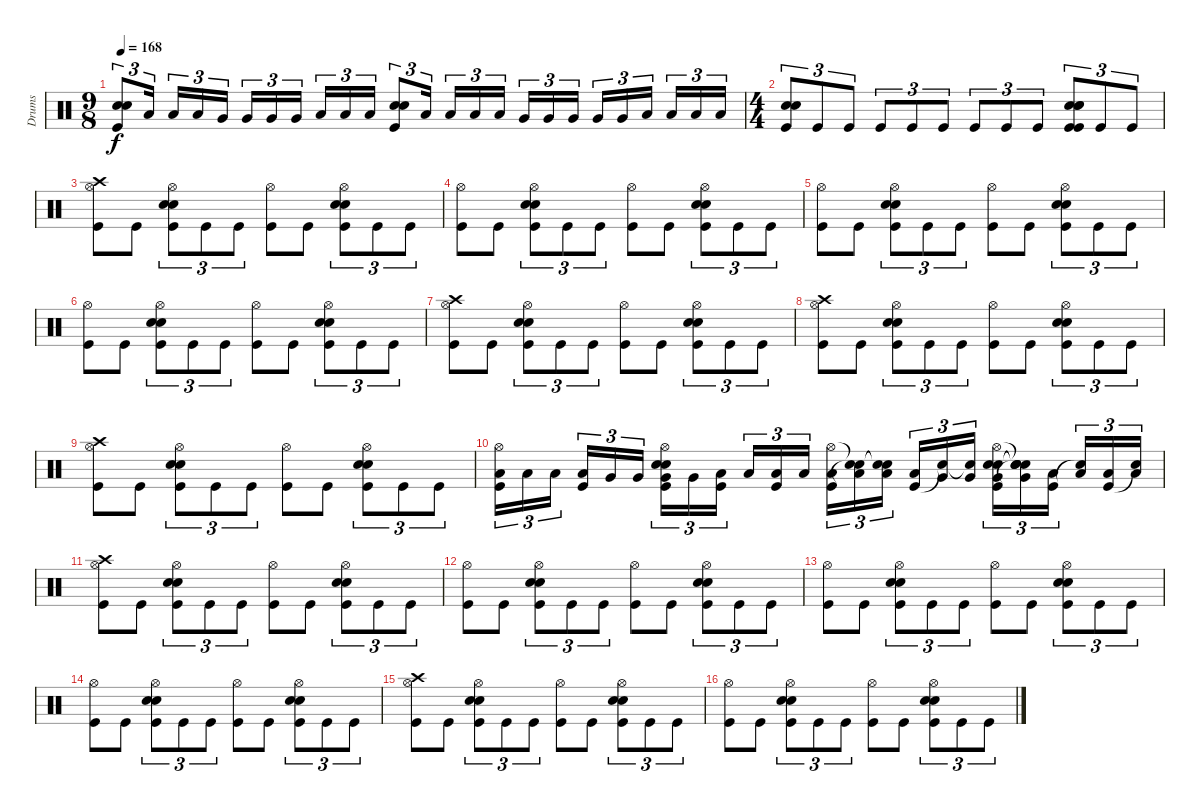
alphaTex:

\track ("Drums" "Drums") {instrument percussion}
\staff {score}
\articulation defaults
\ts (9 8)
\tempo 168
\clef neutral
\ks c
("Electric Snare (hit)" "Electric Snare (hit)" "Kick (hit)").8{tu (3 2) dy f} "Low Tom (hit)".16{tu (3 2)} "Low Tom (hit)".16{tu (3 2)} "Low Tom (hit)".16{tu (3 2)} "Very Low Tom (hit)".16{tu (3 2)} "Very Low Tom (hit)".16{tu (3 2)} "Very Low Tom (hit)".16{tu (3 2)} "Very Low Tom (hit)".16{tu (3 2)} "Low Floor Tom (hit)".16{tu (3 2)} "Low Floor Tom (hit)".16{tu (3 2)} "Low Floor Tom (hit)".16{tu (3 2)} ("Electric Snare (hit)" "Electric Snare (hit)" "Kick (hit)").8{tu (3 2)} "Low Tom (hit)".16{tu (3 2)} "Low Tom (hit)".16{tu (3 2)} "Low Tom (hit)".16{tu (3 2)} "Low Tom (hit)".16{tu (3 2)} "Very Low Tom (hit)".16{tu (3 2)} "Very Low Tom (hit)".16{tu (3 2)} "Very Low Tom (hit)".16{tu (3 2)} "Very Low Tom (hit)".16{tu (3 2)} "Very Low Tom (hit)".16{tu (3 2)} "Low Floor Tom (hit)".16{tu (3 2)} "Low Floor Tom (hit)".16{tu (3 2)} "Low Floor Tom (hit)".16{tu (3 2)} "Low Floor Tom (hit)".16{tu (3 2)} |
\ts (4 4)
("Electric Snare (hit)" "Electric Snare (hit)" "Kick (hit)").8{tu (3 2)} "Kick (hit)".8{tu (3 2)} "Kick (hit)".8{tu (3 2)} "Kick (hit)".8{tu (3 2)} "Kick (hit)".8{tu (3 2)} "Kick (hit)".8{tu (3 2)} "Kick (hit)".8{tu (3 2)} "Kick (hit)".8{tu (3 2)} "Kick (hit)".8{tu (3 2)} ("Snare (hit) 2" "Electric Snare (hit)" "Electric Snare (hit)" "Kick (hit)" "Kick (hit)").8{tu (3 2)} "Kick (hit)".8{tu (3 2)} "Kick (hit)".8{tu (3 2)} |
("Crash high (hit)" "Hi-Hat (open)" "Kick (hit)").8 "Kick (hit)".8 ("Electric Snare (hit)" "Electric Snare (hit)" "Hi-Hat (open)" "Kick (hit)").8{tu (3 2)} "Kick (hit)".8{tu (3 2)} "Kick (hit)".8{tu (3 2)} ("Hi-Hat (open)" "Kick (hit)").8 "Kick (hit)".8 ("Electric Snare (hit)" "Electric Snare (hit)" "Hi-Hat (open)" "Kick (hit)").8{tu (3 2)} "Kick (hit)".8{tu (3 2)} "Kick (hit)".8{tu (3 2)} |
("Hi-Hat (open)" "Kick (hit)").8 "Kick (hit)".8 ("Electric Snare (hit)" "Electric Snare (hit)" "Hi-Hat (open)" "Kick (hit)").8{tu (3 2)} "Kick (hit)".8{tu (3 2)} "Kick (hit)".8{tu (3 2)} ("Hi-Hat (open)" "Kick (hit)").8 "Kick (hit)".8 ("Electric Snare (hit)" "Electric Snare (hit)" "Hi-Hat (open)" "Kick (hit)").8{tu (3 2)} "Kick (hit)".8{tu (3 2)} "Kick (hit)".8{tu (3 2)} |
("Hi-Hat (open)" "Kick (hit)").8 "Kick (hit)".8 ("Electric Snare (hit)" "Electric Snare (hit)" "Hi-Hat (open)" "Kick (hit)").8{tu (3 2)} "Kick (hit)".8{tu (3 2)} "Kick (hit)".8{tu (3 2)} ("Hi-Hat (open)" "Kick (hit)").8 "Kick (hit)".8 ("Electric Snare (hit)" "Electric Snare (hit)" "Hi-Hat (open)" "Kick (hit)").8{tu (3 2)} "Kick (hit)".8{tu (3 2)} "Kick (hit)".8{tu (3 2)} |
("Hi-Hat (open)" "Kick (hit)").8 "Kick (hit)".8 ("Electric Snare (hit)" "Electric Snare (hit)" "Hi-Hat (open)" "Kick (hit)").8{tu (3 2)} "Kick (hit)".8{tu (3 2)} "Kick (hit)".8{tu (3 2)} ("Hi-Hat (open)" "Kick (hit)").8 "Kick (hit)".8 ("Electric Snare (hit)" "Electric Snare (hit)" "Hi-Hat (open)" "Kick (hit)").8{tu (3 2)} "Kick (hit)".8{tu (3 2)} "Kick (hit)".8{tu (3 2)} |
("Crash high (hit)" "Hi-Hat (open)" "Kick (hit)").8 "Kick (hit)".8 ("Electric Snare (hit)" "Electric Snare (hit)" "Hi-Hat (open)" "Kick (hit)").8{tu (3 2)} "Kick (hit)".8{tu (3 2)} "Kick (hit)".8{tu (3 2)} ("Hi-Hat (open)" "Kick (hit)").8 "Kick (hit)".8 ("Electric Snare (hit)" "Electric Snare (hit)" "Hi-Hat (open)" "Kick (hit)").8{tu (3 2)} "Kick (hit)".8{tu (3 2)} "Kick (hit)".8{tu (3 2)} |
("Crash high (hit)" "Hi-Hat (open)" "Kick (hit)").8 "Kick (hit)".8 ("Electric Snare (hit)" "Electric Snare (hit)" "Hi-Hat (open)" "Kick (hit)").8{tu (3 2)} "Kick (hit)".8{tu (3 2)} "Kick (hit)".8{tu (3 2)} ("Hi-Hat (open)" "Kick (hit)").8 "Kick (hit)".8 ("Electric Snare (hit)" "Electric Snare (hit)" "Hi-Hat (open)" "Kick (hit)").8{tu (3 2)} "Kick (hit)".8{tu (3 2)} "Kick (hit)".8{tu (3 2)} |
("Crash high (hit)" "Hi-Hat (open)" "Kick (hit)").8 "Kick (hit)".8 ("Electric Snare (hit)" "Electric Snare (hit)" "Hi-Hat (open)" "Kick (hit)").8{tu (3 2)} "Kick (hit)".8{tu (3 2)} "Kick (hit)".8{tu (3 2)} ("Hi-Hat (open)" "Kick (hit)").8 "Kick (hit)".8 ("Electric Snare (hit)" "Electric Snare (hit)" "Hi-Hat (open)" "Kick (hit)").8{tu (3 2)} "Kick (hit)".8{tu (3 2)} "Kick (hit)".8{tu (3 2)} |
("Low Tom (hit)" "Hi-Hat (open)" "Kick (hit)").16{tu (3 2)} "Low Tom (hit)".16{tu (3 2)} "Low Tom (hit)".16{tu (3 2)} ("Low Tom (hit)" "Kick (hit)").16{tu (3 2)} "Very Low Tom (hit)".16{tu (3 2)} "Very Low Tom (hit)".16{tu (3 2)} ("Very Low Tom (hit)" "Electric Snare (hit)" "Electric Snare (hit)" "Hi-Hat (open)" "Kick (hit)").16{tu (3 2)} "Very Low Tom (hit)".16{tu (3 2)} ("Low Floor Tom (hit)" "Kick (hit)").16{tu (3 2)} "Low Floor Tom (hit)".16{tu (3 2)} ("Low Floor Tom (hit)" "Kick (hit)").16{tu (3 2)} "Low Floor Tom (hit)".16{tu (3 2)} ("Low Tom (hit)" "Hi-Hat (open)" "Kick (hit)").16{tu (3 2)} ("Low Tom (hit)" "Snare (hit)"{t} "Snare (hit)"{t}).16{tu (3 2)} ("Low Tom (hit)" "Snare (hit)"{t} "Snare (hit)"{t}).16{tu (3 2)} ("Low Tom (hit)" "Kick (hit)").16{tu (3 2)} ("Very Low Tom (hit)" "Snare (hit)"{t}).16{tu (3 2)} ("Very Low Tom (hit)" "Snare (hit)"{t}).16{tu (3 2)} ("Very Low Tom (hit)" "Electric Snare (hit)" "Electric Snare (hit)" "Hi-Hat (open)" "Kick (hit)").16{tu (3 2)} ("Very Low Tom (hit)" "Snare (hit)"{t} "Snare (hit)"{t} "Snare (hit)"{t} "Snare (hit)"{t}).16{tu (3 2)} ("Low Floor Tom (hit)" "Kick (hit)").16{tu (3 2)} ("Low Floor Tom (hit)" "Snare (hit)"{t}).16{tu (3 2)} ("Low Floor Tom (hit)" "Kick (hit)").16{tu (3 2)} ("Low Floor Tom (hit)" "Snare (hit)"{t}).16{tu (3 2)} |
("Crash high (hit)" "Hi-Hat (open)" "Kick (hit)").8 "Kick (hit)".8 ("Electric Snare (hit)" "Electric Snare (hit)" "Hi-Hat (open)" "Kick (hit)").8{tu (3 2)} "Kick (hit)".8{tu (3 2)} "Kick (hit)".8{tu (3 2)} ("Hi-Hat (open)" "Kick (hit)").8 "Kick (hit)".8 ("Electric Snare (hit)" "Electric Snare (hit)" "Hi-Hat (open)" "Kick (hit)").8{tu (3 2)} "Kick (hit)".8{tu (3 2)} "Kick (hit)".8{tu (3 2)} |
("Hi-Hat (open)" "Kick (hit)").8 "Kick (hit)".8 ("Electric Snare (hit)" "Electric Snare (hit)" "Hi-Hat (open)" "Kick (hit)").8{tu (3 2)} "Kick (hit)".8{tu (3 2)} "Kick (hit)".8{tu (3 2)} ("Hi-Hat (open)" "Kick (hit)").8 "Kick (hit)".8 ("Electric Snare (hit)" "Electric Snare (hit)" "Hi-Hat (open)" "Kick (hit)").8{tu (3 2)} "Kick (hit)".8{tu (3 2)} "Kick (hit)".8{tu (3 2)} |
("Hi-Hat (open)" "Kick (hit)").8 "Kick (hit)".8 ("Electric Snare (hit)" "Electric Snare (hit)" "Hi-Hat (open)" "Kick (hit)").8{tu (3 2)} "Kick (hit)".8{tu (3 2)} "Kick (hit)".8{tu (3 2)} ("Hi-Hat (open)" "Kick (hit)").8 "Kick (hit)".8 ("Electric Snare (hit)" "Electric Snare (hit)" "Hi-Hat (open)" "Kick (hit)").8{tu (3 2)} "Kick (hit)".8{tu (3 2)} "Kick (hit)".8{tu (3 2)} |
("Hi-Hat (open)" "Kick (hit)").8 "Kick (hit)".8 ("Electric Snare (hit)" "Electric Snare (hit)" "Hi-Hat (open)" "Kick (hit)").8{tu (3 2)} "Kick (hit)".8{tu (3 2)} "Kick (hit)".8{tu (3 2)} ("Hi-Hat (open)" "Kick (hit)").8 "Kick (hit)".8 ("Electric Snare (hit)" "Electric Snare (hit)" "Hi-Hat (open)" "Kick (hit)").8{tu (3 2)} "Kick (hit)".8{tu (3 2)} "Kick (hit)".8{tu (3 2)} |
("Crash high (hit)" "Hi-Hat (open)" "Kick (hit)").8 "Kick (hit)".8 ("Electric Snare (hit)" "Electric Snare (hit)" "Hi-Hat (open)" "Kick (hit)").8{tu (3 2)} "Kick (hit)".8{tu (3 2)} "Kick (hit)".8{tu (3 2)} ("Hi-Hat (open)" "Kick (hit)").8 "Kick (hit)".8 ("Electric Snare (hit)" "Electric Snare (hit)" "Hi-Hat (open)" "Kick (hit)").8{tu (3 2)} "Kick (hit)".8{tu (3 2)} "Kick (hit)".8{tu (3 2)} |
("Hi-Hat (open)" "Kick (hit)").8 "Kick (hit)".8 ("Electric Snare (hit)" "Electric Snare (hit)" "Hi-Hat (open)" "Kick (hit)").8{tu (3 2)} "Kick (hit)".8{tu (3 2)} "Kick (hit)".8{tu (3 2)} ("Hi-Hat (open)" "Kick (hit)").8 "Kick (hit)".8 ("Electric Snare (hit)" "Electric Snare (hit)" "Hi-Hat (open)" "Kick (hit)").8{tu (3 2)} "Kick (hit)".8{tu (3 2)} "Kick (hit)".8{tu (3 2)}
